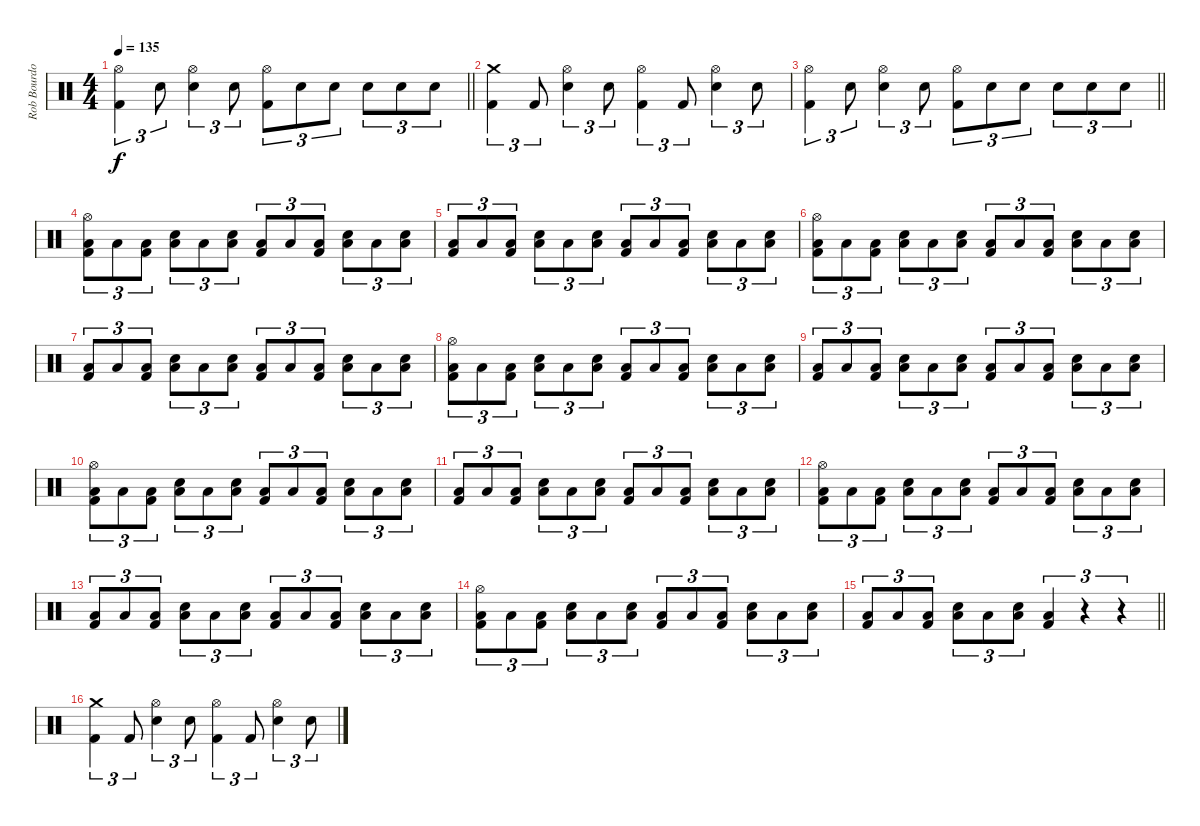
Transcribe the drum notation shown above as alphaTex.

\track ("Rob Bourdon [Drums]" "Rob Bourdo") {instrument percussion bank 5}
\staff {score}
\articulation defaults
\ts (4 4)
\tempo 135
\clef neutral
\barLineRight lightlight
\ks c
("Hi-Hat (open)" "Kick (hit) 2").4{tu (3 2) dy f} "Electric Snare (hit)".8{tu (3 2)} ("Hi-Hat (open)" "Electric Snare (hit)").4{tu (3 2)} "Electric Snare (hit)".8{tu (3 2)} ("Hi-Hat (open)" "Kick (hit) 2").8{tu (3 2)} "Electric Snare (hit)".8{tu (3 2)} "Electric Snare (hit)".8{tu (3 2)} "Electric Snare (hit)".8{tu (3 2)} "Electric Snare (hit)".8{tu (3 2)} "Electric Snare (hit)".8{tu (3 2)} |
("Crash medium (hit)" "Kick (hit) 2").4{tu (3 2)} "Kick (hit) 2".8{tu (3 2)} ("Hi-Hat (open)" "Electric Snare (hit)").4{tu (3 2)} "Electric Snare (hit)".8{tu (3 2)} ("Hi-Hat (open)" "Kick (hit) 2").4{tu (3 2)} "Kick (hit) 2".8{tu (3 2)} ("Hi-Hat (open)" "Electric Snare (hit)").4{tu (3 2)} "Electric Snare (hit)".8{tu (3 2)} |
\barLineRight lightlight
("Hi-Hat (open)" "Kick (hit) 2").4{tu (3 2)} "Electric Snare (hit)".8{tu (3 2)} ("Hi-Hat (open)" "Electric Snare (hit)").4{tu (3 2)} "Electric Snare (hit)".8{tu (3 2)} ("Hi-Hat (open)" "Kick (hit) 2").8{tu (3 2)} "Electric Snare (hit)".8{tu (3 2)} "Electric Snare (hit)".8{tu (3 2)} "Electric Snare (hit)".8{tu (3 2)} "Electric Snare (hit)".8{tu (3 2)} "Electric Snare (hit)".8{tu (3 2)} |
("Hi-Hat (open)" "Low Tom (hit)" "Kick (hit) 2").8{tu (3 2)} "Low Tom (hit)".8{tu (3 2)} ("Low Tom (hit)" "Kick (hit) 2").8{tu (3 2)} ("Low Tom (hit)" "Electric Snare (hit)").8{tu (3 2)} "Low Tom (hit)".8{tu (3 2)} ("Low Tom (hit)" "Electric Snare (hit)").8{tu (3 2)} ("Low Tom (hit)" "Kick (hit) 2").8{tu (3 2)} "Low Tom (hit)".8{tu (3 2)} ("Low Tom (hit)" "Kick (hit) 2").8{tu (3 2)} ("Low Tom (hit)" "Electric Snare (hit)").8{tu (3 2)} "Low Tom (hit)".8{tu (3 2)} ("Low Tom (hit)" "Electric Snare (hit)").8{tu (3 2)} |
("Low Tom (hit)" "Kick (hit) 2").8{tu (3 2)} "Low Tom (hit)".8{tu (3 2)} ("Low Tom (hit)" "Kick (hit) 2").8{tu (3 2)} ("Low Tom (hit)" "Electric Snare (hit)").8{tu (3 2)} "Low Tom (hit)".8{tu (3 2)} ("Low Tom (hit)" "Electric Snare (hit)").8{tu (3 2)} ("Low Tom (hit)" "Kick (hit) 2").8{tu (3 2)} "Low Tom (hit)".8{tu (3 2)} ("Low Tom (hit)" "Kick (hit) 2").8{tu (3 2)} ("Low Tom (hit)" "Electric Snare (hit)").8{tu (3 2)} "Low Tom (hit)".8{tu (3 2)} ("Low Tom (hit)" "Electric Snare (hit)").8{tu (3 2)} |
("Hi-Hat (open)" "Low Tom (hit)" "Kick (hit) 2").8{tu (3 2)} "Low Tom (hit)".8{tu (3 2)} ("Low Tom (hit)" "Kick (hit) 2").8{tu (3 2)} ("Low Tom (hit)" "Electric Snare (hit)").8{tu (3 2)} "Low Tom (hit)".8{tu (3 2)} ("Low Tom (hit)" "Electric Snare (hit)").8{tu (3 2)} ("Low Tom (hit)" "Kick (hit) 2").8{tu (3 2)} "Low Tom (hit)".8{tu (3 2)} ("Low Tom (hit)" "Kick (hit) 2").8{tu (3 2)} ("Low Tom (hit)" "Electric Snare (hit)").8{tu (3 2)} "Low Tom (hit)".8{tu (3 2)} ("Low Tom (hit)" "Electric Snare (hit)").8{tu (3 2)} |
("Low Tom (hit)" "Kick (hit) 2").8{tu (3 2)} "Low Tom (hit)".8{tu (3 2)} ("Low Tom (hit)" "Kick (hit) 2").8{tu (3 2)} ("Low Tom (hit)" "Electric Snare (hit)").8{tu (3 2)} "Low Tom (hit)".8{tu (3 2)} ("Low Tom (hit)" "Electric Snare (hit)").8{tu (3 2)} ("Low Tom (hit)" "Kick (hit) 2").8{tu (3 2)} "Low Tom (hit)".8{tu (3 2)} ("Low Tom (hit)" "Kick (hit) 2").8{tu (3 2)} ("Low Tom (hit)" "Electric Snare (hit)").8{tu (3 2)} "Low Tom (hit)".8{tu (3 2)} ("Low Tom (hit)" "Electric Snare (hit)").8{tu (3 2)} |
("Hi-Hat (open)" "Low Tom (hit)" "Kick (hit) 2").8{tu (3 2)} "Low Tom (hit)".8{tu (3 2)} ("Low Tom (hit)" "Kick (hit) 2").8{tu (3 2)} ("Low Tom (hit)" "Electric Snare (hit)").8{tu (3 2)} "Low Tom (hit)".8{tu (3 2)} ("Low Tom (hit)" "Electric Snare (hit)").8{tu (3 2)} ("Low Tom (hit)" "Kick (hit) 2").8{tu (3 2)} "Low Tom (hit)".8{tu (3 2)} ("Low Tom (hit)" "Kick (hit) 2").8{tu (3 2)} ("Low Tom (hit)" "Electric Snare (hit)").8{tu (3 2)} "Low Tom (hit)".8{tu (3 2)} ("Low Tom (hit)" "Electric Snare (hit)").8{tu (3 2)} |
("Low Tom (hit)" "Kick (hit) 2").8{tu (3 2)} "Low Tom (hit)".8{tu (3 2)} ("Low Tom (hit)" "Kick (hit) 2").8{tu (3 2)} ("Low Tom (hit)" "Electric Snare (hit)").8{tu (3 2)} "Low Tom (hit)".8{tu (3 2)} ("Low Tom (hit)" "Electric Snare (hit)").8{tu (3 2)} ("Low Tom (hit)" "Kick (hit) 2").8{tu (3 2)} "Low Tom (hit)".8{tu (3 2)} ("Low Tom (hit)" "Kick (hit) 2").8{tu (3 2)} ("Low Tom (hit)" "Electric Snare (hit)").8{tu (3 2)} "Low Tom (hit)".8{tu (3 2)} ("Low Tom (hit)" "Electric Snare (hit)").8{tu (3 2)} |
("Hi-Hat (open)" "Low Tom (hit)" "Kick (hit) 2").8{tu (3 2)} "Low Tom (hit)".8{tu (3 2)} ("Low Tom (hit)" "Kick (hit) 2").8{tu (3 2)} ("Low Tom (hit)" "Electric Snare (hit)").8{tu (3 2)} "Low Tom (hit)".8{tu (3 2)} ("Low Tom (hit)" "Electric Snare (hit)").8{tu (3 2)} ("Low Tom (hit)" "Kick (hit) 2").8{tu (3 2)} "Low Tom (hit)".8{tu (3 2)} ("Low Tom (hit)" "Kick (hit) 2").8{tu (3 2)} ("Low Tom (hit)" "Electric Snare (hit)").8{tu (3 2)} "Low Tom (hit)".8{tu (3 2)} ("Low Tom (hit)" "Electric Snare (hit)").8{tu (3 2)} |
("Low Tom (hit)" "Kick (hit) 2").8{tu (3 2)} "Low Tom (hit)".8{tu (3 2)} ("Low Tom (hit)" "Kick (hit) 2").8{tu (3 2)} ("Low Tom (hit)" "Electric Snare (hit)").8{tu (3 2)} "Low Tom (hit)".8{tu (3 2)} ("Low Tom (hit)" "Electric Snare (hit)").8{tu (3 2)} ("Low Tom (hit)" "Kick (hit) 2").8{tu (3 2)} "Low Tom (hit)".8{tu (3 2)} ("Low Tom (hit)" "Kick (hit) 2").8{tu (3 2)} ("Low Tom (hit)" "Electric Snare (hit)").8{tu (3 2)} "Low Tom (hit)".8{tu (3 2)} ("Low Tom (hit)" "Electric Snare (hit)").8{tu (3 2)} |
("Hi-Hat (open)" "Low Tom (hit)" "Kick (hit) 2").8{tu (3 2)} "Low Tom (hit)".8{tu (3 2)} ("Low Tom (hit)" "Kick (hit) 2").8{tu (3 2)} ("Low Tom (hit)" "Electric Snare (hit)").8{tu (3 2)} "Low Tom (hit)".8{tu (3 2)} ("Low Tom (hit)" "Electric Snare (hit)").8{tu (3 2)} ("Low Tom (hit)" "Kick (hit) 2").8{tu (3 2)} "Low Tom (hit)".8{tu (3 2)} ("Low Tom (hit)" "Kick (hit) 2").8{tu (3 2)} ("Low Tom (hit)" "Electric Snare (hit)").8{tu (3 2)} "Low Tom (hit)".8{tu (3 2)} ("Low Tom (hit)" "Electric Snare (hit)").8{tu (3 2)} |
("Low Tom (hit)" "Kick (hit) 2").8{tu (3 2)} "Low Tom (hit)".8{tu (3 2)} ("Low Tom (hit)" "Kick (hit) 2").8{tu (3 2)} ("Low Tom (hit)" "Electric Snare (hit)").8{tu (3 2)} "Low Tom (hit)".8{tu (3 2)} ("Low Tom (hit)" "Electric Snare (hit)").8{tu (3 2)} ("Low Tom (hit)" "Kick (hit) 2").8{tu (3 2)} "Low Tom (hit)".8{tu (3 2)} ("Low Tom (hit)" "Kick (hit) 2").8{tu (3 2)} ("Low Tom (hit)" "Electric Snare (hit)").8{tu (3 2)} "Low Tom (hit)".8{tu (3 2)} ("Low Tom (hit)" "Electric Snare (hit)").8{tu (3 2)} |
("Hi-Hat (open)" "Low Tom (hit)" "Kick (hit) 2").8{tu (3 2)} "Low Tom (hit)".8{tu (3 2)} ("Low Tom (hit)" "Kick (hit) 2").8{tu (3 2)} ("Low Tom (hit)" "Electric Snare (hit)").8{tu (3 2)} "Low Tom (hit)".8{tu (3 2)} ("Low Tom (hit)" "Electric Snare (hit)").8{tu (3 2)} ("Low Tom (hit)" "Kick (hit) 2").8{tu (3 2)} "Low Tom (hit)".8{tu (3 2)} ("Low Tom (hit)" "Kick (hit) 2").8{tu (3 2)} ("Low Tom (hit)" "Electric Snare (hit)").8{tu (3 2)} "Low Tom (hit)".8{tu (3 2)} ("Low Tom (hit)" "Electric Snare (hit)").8{tu (3 2)} |
\barLineRight lightlight
("Low Tom (hit)" "Kick (hit) 2").8{tu (3 2)} "Low Tom (hit)".8{tu (3 2)} ("Low Tom (hit)" "Kick (hit) 2").8{tu (3 2)} ("Low Tom (hit)" "Electric Snare (hit)").8{tu (3 2)} "Low Tom (hit)".8{tu (3 2)} ("Low Tom (hit)" "Electric Snare (hit)").8{tu (3 2)} ("Low Tom (hit)" "Kick (hit) 2").4{tu (3 2)} r.4{tu (3 2)} r.4{tu (3 2)} |
("Crash medium (hit)" "Kick (hit) 2").4{tu (3 2)} "Kick (hit) 2".8{tu (3 2)} ("Hi-Hat (open)" "Electric Snare (hit)").4{tu (3 2)} "Electric Snare (hit)".8{tu (3 2)} ("Hi-Hat (open)" "Kick (hit) 2").4{tu (3 2)} "Kick (hit) 2".8{tu (3 2)} ("Hi-Hat (open)" "Electric Snare (hit)").4{tu (3 2)} "Electric Snare (hit)".8{tu (3 2)}
